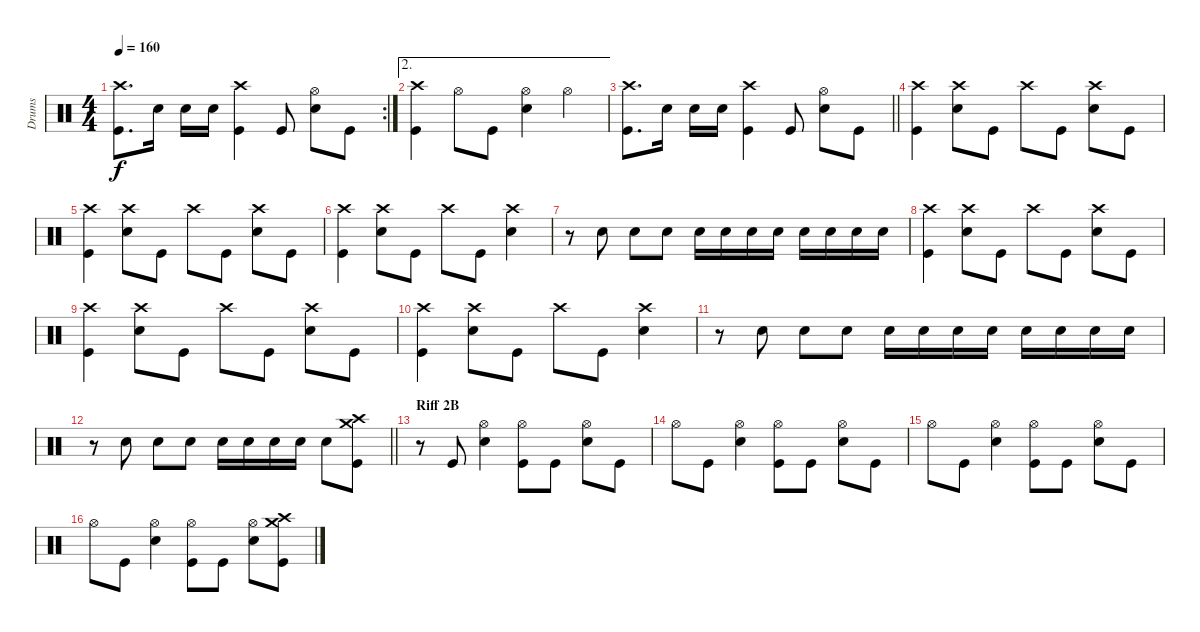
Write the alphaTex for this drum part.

\track ("Drums" "Drums") {instrument percussion}
\staff {score}
\articulation defaults
\rc 2
\ts (4 4)
\tempo 160
\clef neutral
\ks c
("Crash high (hit)" "Kick (hit)").8{d dy f} "Electric Snare (hit)".16 "Electric Snare (hit)".16 "Electric Snare (hit)".16 ("Crash high (hit)" "Kick (hit)").4 "Kick (hit)".8 ("Hi-Hat (open)" "Electric Snare (hit)").8 "Kick (hit)".8 |
\ae 2
("Crash high (hit)" "Kick (hit)").4 "Hi-Hat (open)".8 "Kick (hit)".8 ("Hi-Hat (open)" "Electric Snare (hit)").4 "Hi-Hat (open)".4 |
\barLineRight lightlight
("Crash high (hit)" "Kick (hit)").8{d} "Electric Snare (hit)".16 "Electric Snare (hit)".16 "Electric Snare (hit)".16 ("Crash high (hit)" "Kick (hit)").4 "Kick (hit)".8 ("Hi-Hat (open)" "Electric Snare (hit)").8 "Kick (hit)".8 |
("Crash high (hit)" "Kick (hit)").4 ("Crash high (hit)" "Electric Snare (hit)").8 "Kick (hit)".8 "Crash high (hit)".8 "Kick (hit)".8 ("Crash high (hit)" "Electric Snare (hit)").8 "Kick (hit)".8 |
("Crash high (hit)" "Kick (hit)").4 ("Crash high (hit)" "Electric Snare (hit)").8 "Kick (hit)".8 "Crash high (hit)".8 "Kick (hit)".8 ("Crash high (hit)" "Electric Snare (hit)").8 "Kick (hit)".8 |
("Crash high (hit)" "Kick (hit)").4 ("Crash high (hit)" "Electric Snare (hit)").8 "Kick (hit)".8 "Crash high (hit)".8 "Kick (hit)".8 ("Crash high (hit)" "Electric Snare (hit)").4 |
r.8 "Electric Snare (hit)".8 "Electric Snare (hit)".8 "Electric Snare (hit)".8 "Electric Snare (hit)".16 "Electric Snare (hit)".16 "Electric Snare (hit)".16 "Electric Snare (hit)".16 "Electric Snare (hit)".16 "Electric Snare (hit)".16 "Electric Snare (hit)".16 "Electric Snare (hit)".16 |
("Crash high (hit)" "Kick (hit)").4 ("Crash high (hit)" "Electric Snare (hit)").8 "Kick (hit)".8 "Crash high (hit)".8 "Kick (hit)".8 ("Crash high (hit)" "Electric Snare (hit)").8 "Kick (hit)".8 |
("Crash high (hit)" "Kick (hit)").4 ("Crash high (hit)" "Electric Snare (hit)").8 "Kick (hit)".8 "Crash high (hit)".8 "Kick (hit)".8 ("Crash high (hit)" "Electric Snare (hit)").8 "Kick (hit)".8 |
("Crash high (hit)" "Kick (hit)").4 ("Crash high (hit)" "Electric Snare (hit)").8 "Kick (hit)".8 "Crash high (hit)".8 "Kick (hit)".8 ("Crash high (hit)" "Electric Snare (hit)").4 |
r.8 "Electric Snare (hit)".8 "Electric Snare (hit)".8 "Electric Snare (hit)".8 "Electric Snare (hit)".16 "Electric Snare (hit)".16 "Electric Snare (hit)".16 "Electric Snare (hit)".16 "Electric Snare (hit)".16 "Electric Snare (hit)".16 "Electric Snare (hit)".16 "Electric Snare (hit)".16 |
\barLineRight lightlight
r.8 "Electric Snare (hit)".8 "Electric Snare (hit)".8 "Electric Snare (hit)".8 "Electric Snare (hit)".16 "Electric Snare (hit)".16 "Electric Snare (hit)".16 "Electric Snare (hit)".16 "Electric Snare (hit)".8 ("Kick (hit)" "Crash medium (hit)" "Crash high (hit)").8 |
\section ("" "Riff 2B")
r.8 "Kick (hit)".8 ("Hi-Hat (open)" "Electric Snare (hit)").4 ("Kick (hit)" "Hi-Hat (open)").8 "Kick (hit)".8 ("Hi-Hat (open)" "Electric Snare (hit)").8 "Kick (hit)".8 |
"Hi-Hat (open)".8 "Kick (hit)".8 ("Hi-Hat (open)" "Electric Snare (hit)").4 ("Kick (hit)" "Hi-Hat (open)").8 "Kick (hit)".8 ("Hi-Hat (open)" "Electric Snare (hit)").8 "Kick (hit)".8 |
"Hi-Hat (open)".8 "Kick (hit)".8 ("Hi-Hat (open)" "Electric Snare (hit)").4 ("Kick (hit)" "Hi-Hat (open)").8 "Kick (hit)".8 ("Hi-Hat (open)" "Electric Snare (hit)").8 "Kick (hit)".8 |
"Hi-Hat (open)".8 "Kick (hit)".8 ("Hi-Hat (open)" "Electric Snare (hit)").4 ("Kick (hit)" "Hi-Hat (open)").8 "Kick (hit)".8 ("Hi-Hat (open)" "Electric Snare (hit)").8 ("Kick (hit)" "Crash medium (hit)" "Crash high (hit)").8
